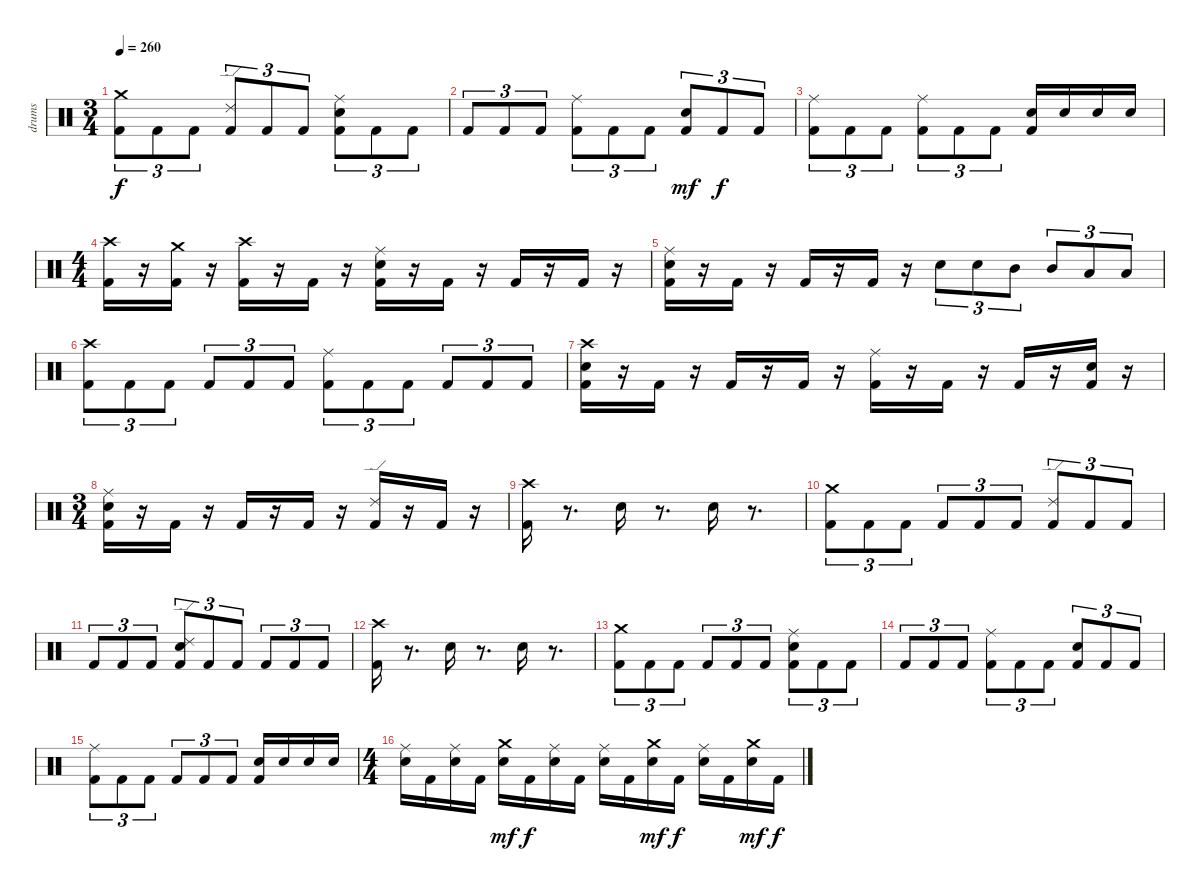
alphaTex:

\track ("drums" "drums") {instrument percussion}
\staff {score}
\articulation defaults
\ts (3 4)
\tempo 260
\clef neutral
\ks c
("Kick (hit) 2" "Crash medium (hit)").8{tu (3 2) dy f} "Kick (hit) 2".8{tu (3 2)} "Kick (hit) 2".8{tu (3 2)} ("Kick (hit) 2" "Ride (edge) 2").8{tu (3 2)} "Kick (hit) 2".8{tu (3 2)} "Kick (hit) 2".8{tu (3 2)} ("Kick (hit) 2" "Snare (hit) 2" "Ride (middle)").8{tu (3 2)} "Kick (hit) 2".8{tu (3 2)} "Kick (hit) 2".8{tu (3 2)} |
"Kick (hit) 2".8{tu (3 2)} "Kick (hit) 2".8{tu (3 2)} "Kick (hit) 2".8{tu (3 2)} ("Kick (hit) 2" "Ride (middle)").8{tu (3 2)} "Kick (hit) 2".8{tu (3 2)} "Kick (hit) 2".8{tu (3 2)} ("Kick (hit) 2" "Snare (hit) 2").8{tu (3 2) dy mf} "Kick (hit) 2".8{tu (3 2) dy f} "Kick (hit) 2".8{tu (3 2)} |
("Kick (hit) 2" "Ride (middle)").8{tu (3 2)} "Kick (hit) 2".8{tu (3 2)} "Kick (hit) 2".8{tu (3 2)} ("Kick (hit) 2" "Ride (middle)").8{tu (3 2)} "Kick (hit) 2".8{tu (3 2)} "Kick (hit) 2".8{tu (3 2)} ("Kick (hit) 2" "Snare (hit) 2").16 "Snare (hit) 2".16 "Snare (hit) 2".16 "Snare (hit) 2".16 |
\ts (4 4)
("Kick (hit) 2" "Crash high (hit)").16 r.16 ("Kick (hit) 2" "Crash medium (hit)").16 r.16 ("Kick (hit) 2" "Crash high (hit)").16 r.16 "Kick (hit) 2".16 r.16 ("Kick (hit) 2" "Snare (hit) 2" "Ride (middle)").16 r.16 "Kick (hit) 2".16 r.16 "Kick (hit) 2".16 r.16 "Kick (hit) 2".16 r.16 |
("Kick (hit) 2" "Snare (hit) 2" "Ride (middle)").16 r.16 "Kick (hit) 2".16 r.16 "Kick (hit) 2".16 r.16 "Kick (hit) 2".16 r.16 "Snare (hit) 2".8{tu (3 2)} "Snare (hit) 2".8{tu (3 2)} "Mid Tom (hit)".8{tu (3 2)} "Mid Tom (hit)".8{tu (3 2)} "Low Floor Tom (hit)".8{tu (3 2)} "Low Floor Tom (hit)".8{tu (3 2)} |
("Kick (hit) 2" "Crash high (hit)").8{tu (3 2)} "Kick (hit) 2".8{tu (3 2)} "Kick (hit) 2".8{tu (3 2)} "Kick (hit) 2".8{tu (3 2)} "Kick (hit) 2".8{tu (3 2)} "Kick (hit) 2".8{tu (3 2)} ("Kick (hit) 2" "Ride (middle)").8{tu (3 2)} "Kick (hit) 2".8{tu (3 2)} "Kick (hit) 2".8{tu (3 2)} "Kick (hit) 2".8{tu (3 2)} "Kick (hit) 2".8{tu (3 2)} "Kick (hit) 2".8{tu (3 2)} |
("Kick (hit) 2" "Snare (hit) 2" "Crash high (hit)").16 r.16 "Kick (hit) 2".16 r.16 "Kick (hit) 2".16 r.16 "Kick (hit) 2".16 r.16 ("Kick (hit) 2" "Ride (middle)").16 r.16 "Kick (hit) 2".16 r.16 "Kick (hit) 2".16 r.16 ("Kick (hit) 2" "Snare (hit) 2").16 r.16 |
\ts (3 4)
("Kick (hit) 2" "Snare (hit) 2" "Ride (middle)").16 r.16 "Kick (hit) 2".16 r.16 "Kick (hit) 2".16 r.16 "Kick (hit) 2".16 r.16 ("Kick (hit) 2" "Ride (edge) 2").16 r.16 "Kick (hit) 2".16 r.16 |
("Kick (hit) 2" "Crash high (hit)").16 r.8{d} "Snare (hit) 2".16 r.8{d} "Snare (hit) 2".16 r.8{d} |
("Kick (hit) 2" "Crash medium (hit)").8{tu (3 2)} "Kick (hit) 2".8{tu (3 2)} "Kick (hit) 2".8{tu (3 2)} "Kick (hit) 2".8{tu (3 2)} "Kick (hit) 2".8{tu (3 2)} "Kick (hit) 2".8{tu (3 2)} ("Kick (hit) 2" "Ride (edge) 2").8{tu (3 2)} "Kick (hit) 2".8{tu (3 2)} "Kick (hit) 2".8{tu (3 2)} |
"Kick (hit) 2".8{tu (3 2)} "Kick (hit) 2".8{tu (3 2)} "Kick (hit) 2".8{tu (3 2)} ("Kick (hit) 2" "Snare (hit) 2" "Ride (edge) 2").8{tu (3 2)} "Kick (hit) 2".8{tu (3 2)} "Kick (hit) 2".8{tu (3 2)} "Kick (hit) 2".8{tu (3 2)} "Kick (hit) 2".8{tu (3 2)} "Kick (hit) 2".8{tu (3 2)} |
("Kick (hit) 2" "Crash high (hit)").16 r.8{d} "Snare (hit) 2".16 r.8{d} "Snare (hit) 2".16 r.8{d} |
("Kick (hit) 2" "Crash medium (hit)").8{tu (3 2)} "Kick (hit) 2".8{tu (3 2)} "Kick (hit) 2".8{tu (3 2)} "Kick (hit) 2".8{tu (3 2)} "Kick (hit) 2".8{tu (3 2)} "Kick (hit) 2".8{tu (3 2)} ("Kick (hit) 2" "Snare (hit) 2" "Ride (middle)").8{tu (3 2)} "Kick (hit) 2".8{tu (3 2)} "Kick (hit) 2".8{tu (3 2)} |
"Kick (hit) 2".8{tu (3 2)} "Kick (hit) 2".8{tu (3 2)} "Kick (hit) 2".8{tu (3 2)} ("Kick (hit) 2" "Ride (middle)").8{tu (3 2)} "Kick (hit) 2".8{tu (3 2)} "Kick (hit) 2".8{tu (3 2)} ("Kick (hit) 2" "Snare (hit) 2").8{tu (3 2)} "Kick (hit) 2".8{tu (3 2)} "Kick (hit) 2".8{tu (3 2)} |
("Kick (hit) 2" "Ride (middle)").8{tu (3 2)} "Kick (hit) 2".8{tu (3 2)} "Kick (hit) 2".8{tu (3 2)} "Kick (hit) 2".8{tu (3 2)} "Kick (hit) 2".8{tu (3 2)} "Kick (hit) 2".8{tu (3 2)} ("Kick (hit) 2" "Snare (hit) 2").16 "Snare (hit) 2".16 "Snare (hit) 2".16 "Snare (hit) 2".16 |
\ts (4 4)
("Snare (hit) 2" "Ride (middle)").16 "Kick (hit) 2".16 ("Snare (hit) 2" "Ride (middle)").16 "Kick (hit) 2".16 ("Snare (hit) 2" "Crash medium (hit)").16{dy mf} "Kick (hit) 2".16{dy f} ("Snare (hit) 2" "Ride (middle)").16 "Kick (hit) 2".16 ("Snare (hit) 2" "Ride (middle)").16 "Kick (hit) 2".16 ("Snare (hit) 2" "Crash medium (hit)").16{dy mf} "Kick (hit) 2".16{dy f} ("Snare (hit) 2" "Ride (middle)").16 "Kick (hit) 2".16 ("Snare (hit) 2" "Crash medium (hit)").16{dy mf} "Kick (hit) 2".16{dy f}
